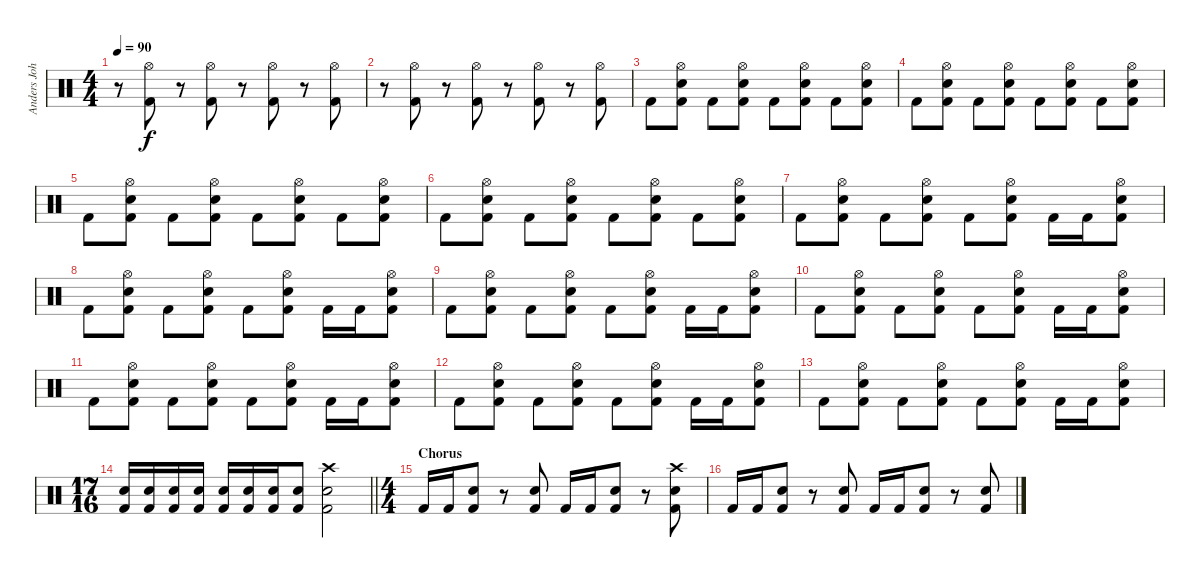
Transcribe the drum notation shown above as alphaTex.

\track ("Anders Johansson Drums" "Anders Joh") {instrument percussion}
\staff {score}
\articulation defaults
\ts (4 4)
\tempo 90
\clef neutral
\ks c
r.8{dy f} ("Hi-Hat (open)" "Kick (hit) 2").8 r.8 ("Hi-Hat (open)" "Kick (hit) 2").8 r.8 ("Hi-Hat (open)" "Kick (hit) 2").8 r.8 ("Hi-Hat (open)" "Kick (hit) 2").8 |
r.8 ("Hi-Hat (open)" "Kick (hit) 2").8 r.8 ("Hi-Hat (open)" "Kick (hit) 2").8 r.8 ("Hi-Hat (open)" "Kick (hit) 2").8 r.8 ("Hi-Hat (open)" "Kick (hit) 2").8 |
"Kick (hit) 2".8 ("Hi-Hat (open)" "Electric Snare (hit)" "Kick (hit) 2").8 "Kick (hit) 2".8 ("Hi-Hat (open)" "Electric Snare (hit)" "Kick (hit) 2").8 "Kick (hit) 2".8 ("Hi-Hat (open)" "Electric Snare (hit)" "Kick (hit) 2").8 "Kick (hit) 2".8 ("Hi-Hat (open)" "Electric Snare (hit)" "Kick (hit) 2").8 |
"Kick (hit) 2".8 ("Hi-Hat (open)" "Electric Snare (hit)" "Kick (hit) 2").8 "Kick (hit) 2".8 ("Hi-Hat (open)" "Electric Snare (hit)" "Kick (hit) 2").8 "Kick (hit) 2".8 ("Hi-Hat (open)" "Electric Snare (hit)" "Kick (hit) 2").8 "Kick (hit) 2".8 ("Hi-Hat (open)" "Electric Snare (hit)" "Kick (hit) 2").8 |
"Kick (hit) 2".8 ("Hi-Hat (open)" "Electric Snare (hit)" "Kick (hit) 2").8 "Kick (hit) 2".8 ("Hi-Hat (open)" "Electric Snare (hit)" "Kick (hit) 2").8 "Kick (hit) 2".8 ("Hi-Hat (open)" "Electric Snare (hit)" "Kick (hit) 2").8 "Kick (hit) 2".8 ("Hi-Hat (open)" "Electric Snare (hit)" "Kick (hit) 2").8 |
"Kick (hit) 2".8 ("Hi-Hat (open)" "Electric Snare (hit)" "Kick (hit) 2").8 "Kick (hit) 2".8 ("Hi-Hat (open)" "Electric Snare (hit)" "Kick (hit) 2").8 "Kick (hit) 2".8 ("Hi-Hat (open)" "Electric Snare (hit)" "Kick (hit) 2").8 "Kick (hit) 2".8 ("Hi-Hat (open)" "Electric Snare (hit)" "Kick (hit) 2").8 |
"Kick (hit) 2".8 ("Hi-Hat (open)" "Electric Snare (hit)" "Kick (hit) 2").8 "Kick (hit) 2".8 ("Hi-Hat (open)" "Electric Snare (hit)" "Kick (hit) 2").8 "Kick (hit) 2".8 ("Hi-Hat (open)" "Electric Snare (hit)" "Kick (hit) 2").8 "Kick (hit) 2".16 "Kick (hit) 2".16 ("Hi-Hat (open)" "Electric Snare (hit)" "Kick (hit) 2").8 |
"Kick (hit) 2".8 ("Hi-Hat (open)" "Electric Snare (hit)" "Kick (hit) 2").8 "Kick (hit) 2".8 ("Hi-Hat (open)" "Electric Snare (hit)" "Kick (hit) 2").8 "Kick (hit) 2".8 ("Hi-Hat (open)" "Electric Snare (hit)" "Kick (hit) 2").8 "Kick (hit) 2".16 "Kick (hit) 2".16 ("Hi-Hat (open)" "Electric Snare (hit)" "Kick (hit) 2").8 |
"Kick (hit) 2".8 ("Hi-Hat (open)" "Electric Snare (hit)" "Kick (hit) 2").8 "Kick (hit) 2".8 ("Hi-Hat (open)" "Electric Snare (hit)" "Kick (hit) 2").8 "Kick (hit) 2".8 ("Hi-Hat (open)" "Electric Snare (hit)" "Kick (hit) 2").8 "Kick (hit) 2".16 "Kick (hit) 2".16 ("Hi-Hat (open)" "Electric Snare (hit)" "Kick (hit) 2").8 |
"Kick (hit) 2".8 ("Hi-Hat (open)" "Electric Snare (hit)" "Kick (hit) 2").8 "Kick (hit) 2".8 ("Hi-Hat (open)" "Electric Snare (hit)" "Kick (hit) 2").8 "Kick (hit) 2".8 ("Hi-Hat (open)" "Electric Snare (hit)" "Kick (hit) 2").8 "Kick (hit) 2".16 "Kick (hit) 2".16 ("Hi-Hat (open)" "Electric Snare (hit)" "Kick (hit) 2").8 |
"Kick (hit) 2".8 ("Hi-Hat (open)" "Electric Snare (hit)" "Kick (hit) 2").8 "Kick (hit) 2".8 ("Hi-Hat (open)" "Electric Snare (hit)" "Kick (hit) 2").8 "Kick (hit) 2".8 ("Hi-Hat (open)" "Electric Snare (hit)" "Kick (hit) 2").8 "Kick (hit) 2".16 "Kick (hit) 2".16 ("Hi-Hat (open)" "Electric Snare (hit)" "Kick (hit) 2").8 |
"Kick (hit) 2".8 ("Hi-Hat (open)" "Electric Snare (hit)" "Kick (hit) 2").8 "Kick (hit) 2".8 ("Hi-Hat (open)" "Electric Snare (hit)" "Kick (hit) 2").8 "Kick (hit) 2".8 ("Hi-Hat (open)" "Electric Snare (hit)" "Kick (hit) 2").8 "Kick (hit) 2".16 "Kick (hit) 2".16 ("Hi-Hat (open)" "Electric Snare (hit)" "Kick (hit) 2").8 |
"Kick (hit) 2".8 ("Hi-Hat (open)" "Electric Snare (hit)" "Kick (hit) 2").8 "Kick (hit) 2".8 ("Hi-Hat (open)" "Electric Snare (hit)" "Kick (hit) 2").8 "Kick (hit) 2".8 ("Hi-Hat (open)" "Electric Snare (hit)" "Kick (hit) 2").8 "Kick (hit) 2".16 "Kick (hit) 2".16 ("Hi-Hat (open)" "Electric Snare (hit)" "Kick (hit) 2").8 |
\ts (17 16)
\barLineRight lightlight
("Electric Snare (hit)" "Kick (hit) 2").16 ("Electric Snare (hit)" "Kick (hit) 2").16 ("Electric Snare (hit)" "Kick (hit) 2").16 ("Electric Snare (hit)" "Kick (hit) 2").16 ("Electric Snare (hit)" "Kick (hit) 2").16 ("Electric Snare (hit)" "Kick (hit) 2").16 ("Electric Snare (hit)" "Kick (hit) 2").16 ("Electric Snare (hit)" "Kick (hit) 2").8 ("Crash high (hit)" "Electric Snare (hit)" "Kick (hit) 2").2 |
\ts (4 4)
\section ("" "Chorus")
"Kick (hit) 2".16 "Kick (hit) 2".16 ("Electric Snare (hit)" "Kick (hit) 2").8 r.8 ("Electric Snare (hit)" "Kick (hit) 2").8 "Kick (hit) 2".16 "Kick (hit) 2".16 ("Electric Snare (hit)" "Kick (hit) 2").8 r.8 ("Crash high (hit)" "Electric Snare (hit)" "Kick (hit) 2").8 |
"Kick (hit) 2".16 "Kick (hit) 2".16 ("Electric Snare (hit)" "Kick (hit) 2").8 r.8 ("Electric Snare (hit)" "Kick (hit) 2").8 "Kick (hit) 2".16 "Kick (hit) 2".16 ("Electric Snare (hit)" "Kick (hit) 2").8 r.8 ("Electric Snare (hit)" "Kick (hit) 2").8
